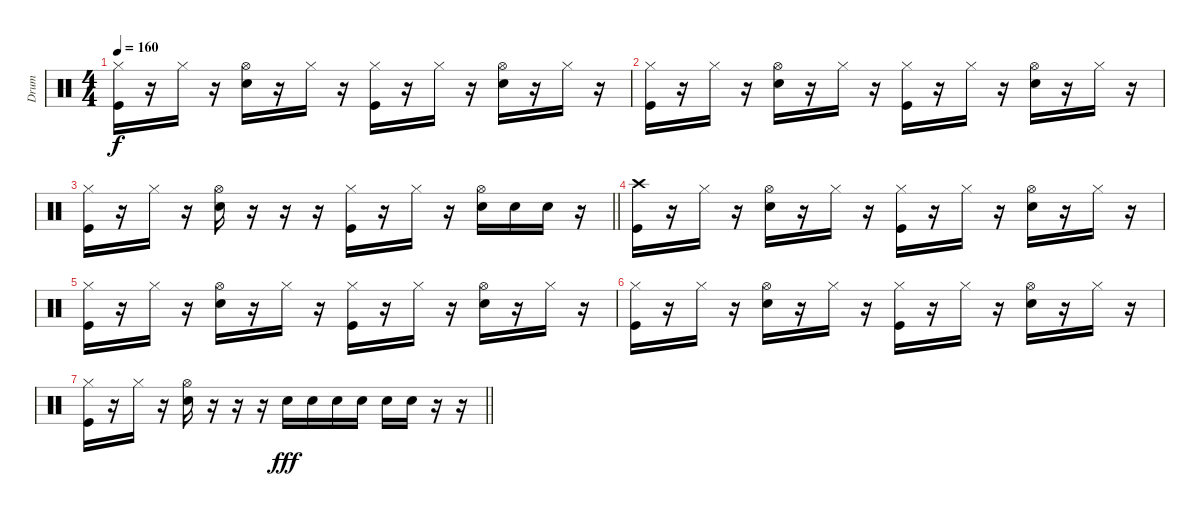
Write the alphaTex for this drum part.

\track ("Drum" "Drum") {instrument percussion}
\staff {score}
\articulation defaults
\ts (4 4)
\tempo 160
\clef neutral
\ks c
("Hi-Hat (closed)" "Kick (hit)").16{dy f} r.16 "Hi-Hat (closed)".16 r.16 ("Hi-Hat (open)" "Electric Snare (hit)").16 r.16 "Hi-Hat (closed)".16 r.16 ("Hi-Hat (closed)" "Kick (hit)").16 r.16 "Hi-Hat (closed)".16 r.16 ("Hi-Hat (open)" "Electric Snare (hit)").16 r.16 "Hi-Hat (closed)".16 r.16 |
("Hi-Hat (closed)" "Kick (hit)").16 r.16 "Hi-Hat (closed)".16 r.16 ("Hi-Hat (open)" "Electric Snare (hit)").16 r.16 "Hi-Hat (closed)".16 r.16 ("Hi-Hat (closed)" "Kick (hit)").16 r.16 "Hi-Hat (closed)".16 r.16 ("Hi-Hat (open)" "Electric Snare (hit)").16 r.16 "Hi-Hat (closed)".16 r.16 |
\barLineRight lightlight
("Hi-Hat (closed)" "Kick (hit)").16 r.16 "Hi-Hat (closed)".16 r.16 ("Hi-Hat (open)" "Electric Snare (hit)").16 r.16 r.16 r.16 ("Hi-Hat (closed)" "Kick (hit)").16 r.16 "Hi-Hat (closed)".16 r.16 ("Hi-Hat (open)" "Electric Snare (hit)").16 "Electric Snare (hit)".16 "Electric Snare (hit)".16 r.16 |
("Crash high (hit)" "Kick (hit)").16 r.16 "Hi-Hat (closed)".16 r.16 ("Hi-Hat (open)" "Electric Snare (hit)").16 r.16 "Hi-Hat (closed)".16 r.16 ("Hi-Hat (closed)" "Kick (hit)").16 r.16 "Hi-Hat (closed)".16 r.16 ("Hi-Hat (open)" "Electric Snare (hit)").16 r.16 "Hi-Hat (closed)".16 r.16 |
("Hi-Hat (closed)" "Kick (hit)").16 r.16 "Hi-Hat (closed)".16 r.16 ("Hi-Hat (open)" "Electric Snare (hit)").16 r.16 "Hi-Hat (closed)".16 r.16 ("Hi-Hat (closed)" "Kick (hit)").16 r.16 "Hi-Hat (closed)".16 r.16 ("Hi-Hat (open)" "Electric Snare (hit)").16 r.16 "Hi-Hat (closed)".16 r.16 |
("Hi-Hat (closed)" "Kick (hit)").16 r.16 "Hi-Hat (closed)".16 r.16 ("Hi-Hat (open)" "Electric Snare (hit)").16 r.16 "Hi-Hat (closed)".16 r.16 ("Hi-Hat (closed)" "Kick (hit)").16 r.16 "Hi-Hat (closed)".16 r.16 ("Hi-Hat (open)" "Electric Snare (hit)").16 r.16 "Hi-Hat (closed)".16 r.16 |
\barLineRight lightlight
("Hi-Hat (closed)" "Kick (hit)").16 r.16 "Hi-Hat (closed)".16 r.16 ("Hi-Hat (open)" "Electric Snare (hit)").16 r.16 r.16 r.16 "Electric Snare (hit)".16{dy fff} "Electric Snare (hit)".16 "Electric Snare (hit)".16 "Electric Snare (hit)".16 "Electric Snare (hit)".16 "Electric Snare (hit)".16 r.16 r.16
